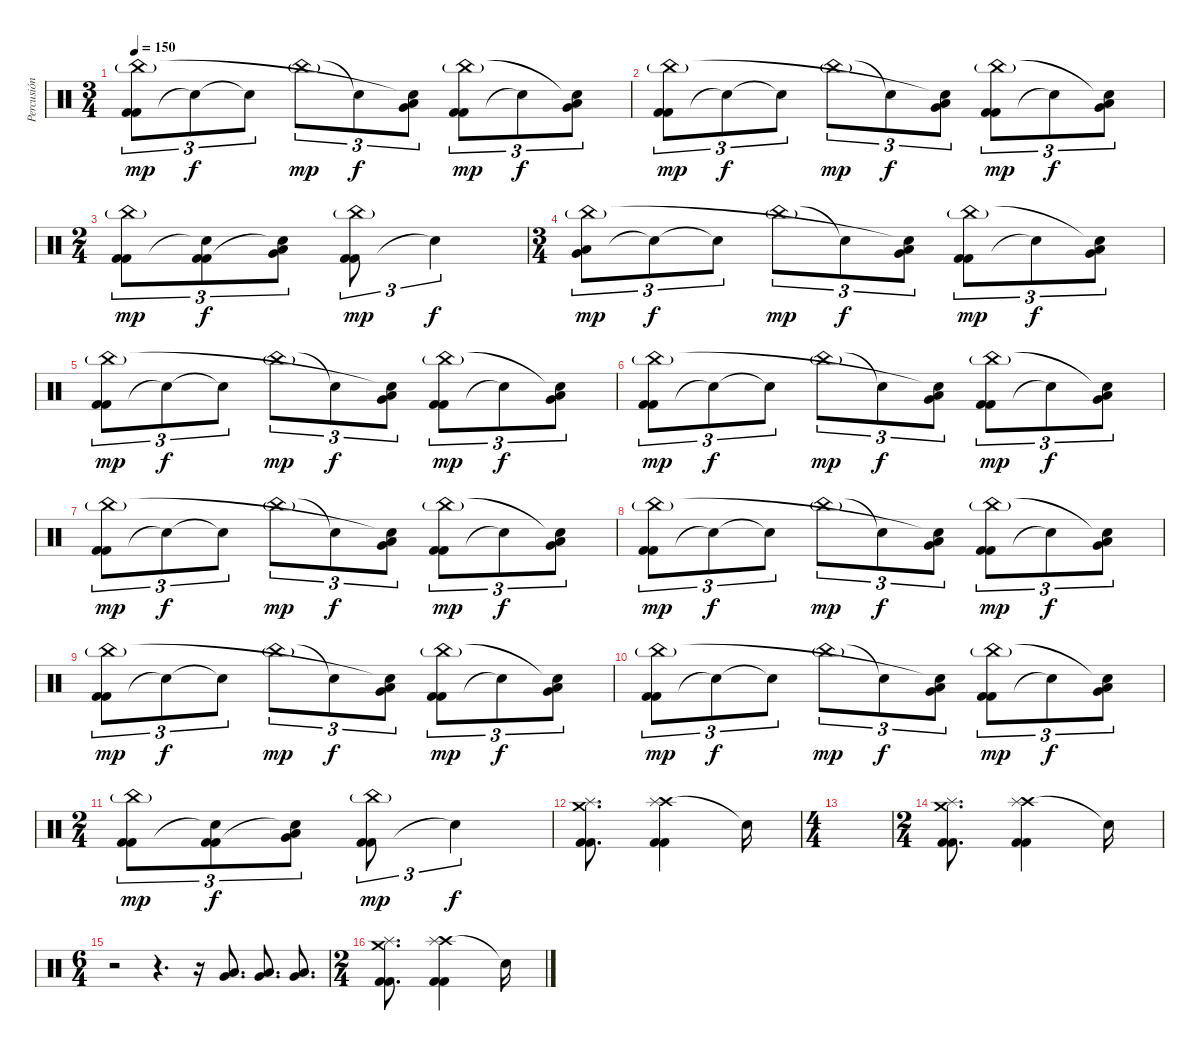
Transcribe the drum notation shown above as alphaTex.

\track ("Percusión" "Percusión") {instrument percussion}
\staff {score}
\articulation defaults
\ts (3 4)
\tempo 150
\clef neutral
\ks c
("Kick (hit) 2" "Kick (hit) 2" "China (hit)"{g}).8{tu (3 2) dy mp} "Snare (hit)"{t}.8{tu (3 2) dy f} "Snare (hit)"{t}.8{tu (3 2)} "China (hit)"{g}.8{tu (3 2) dy mp} "Snare (hit)"{t}.8{tu (3 2) dy f} ("Low Floor Tom (hit)" "Very Low Tom (hit)" "Snare (hit)"{t}).8{tu (3 2)} ("Kick (hit) 2" "Kick (hit) 2" "China (hit)"{g}).8{tu (3 2) dy mp} "Snare (hit)"{t}.8{tu (3 2) dy f} ("Low Floor Tom (hit)" "Very Low Tom (hit)" "Snare (hit)"{t}).8{tu (3 2)} |
("Kick (hit) 2" "Kick (hit) 2" "China (hit)"{g}).8{tu (3 2) dy mp} "Snare (hit)"{t}.8{tu (3 2) dy f} "Snare (hit)"{t}.8{tu (3 2)} "China (hit)"{g}.8{tu (3 2) dy mp} "Snare (hit)"{t}.8{tu (3 2) dy f} ("Low Floor Tom (hit)" "Very Low Tom (hit)" "Snare (hit)"{t}).8{tu (3 2)} ("Kick (hit) 2" "Kick (hit) 2" "China (hit)"{g}).8{tu (3 2) dy mp} "Snare (hit)"{t}.8{tu (3 2) dy f} ("Low Floor Tom (hit)" "Very Low Tom (hit)" "Snare (hit)"{t}).8{tu (3 2)} |
\ts (2 4)
("Kick (hit) 2" "Kick (hit) 2" "China (hit)"{g}).8{tu (3 2) dy mp} ("Snare (hit)"{t} "Kick (hit) 2" "Kick (hit) 2").8{tu (3 2) dy f} ("Low Floor Tom (hit)" "Very Low Tom (hit)" "Snare (hit)"{t}).8{tu (3 2)} ("Kick (hit) 2" "Kick (hit) 2" "China (hit)"{g}).8{tu (3 2) dy mp} "Snare (hit)"{t}.4{tu (3 2) dy f} |
\ts (3 4)
("Low Floor Tom (hit)" "Very Low Tom (hit)" "China (hit)"{g}).8{tu (3 2) dy mp} "Snare (hit)"{t}.8{tu (3 2) dy f} "Snare (hit)"{t}.8{tu (3 2)} "China (hit)"{g}.8{tu (3 2) dy mp} "Snare (hit)"{t}.8{tu (3 2) dy f} ("Low Floor Tom (hit)" "Very Low Tom (hit)" "Snare (hit)"{t}).8{tu (3 2)} ("Kick (hit) 2" "Kick (hit) 2" "China (hit)"{g}).8{tu (3 2) dy mp} "Snare (hit)"{t}.8{tu (3 2) dy f} ("Low Floor Tom (hit)" "Very Low Tom (hit)" "Snare (hit)"{t}).8{tu (3 2)} |
("Kick (hit) 2" "Kick (hit) 2" "China (hit)"{g}).8{tu (3 2) dy mp} "Snare (hit)"{t}.8{tu (3 2) dy f} "Snare (hit)"{t}.8{tu (3 2)} "China (hit)"{g}.8{tu (3 2) dy mp} "Snare (hit)"{t}.8{tu (3 2) dy f} ("Low Floor Tom (hit)" "Very Low Tom (hit)" "Snare (hit)"{t}).8{tu (3 2)} ("Kick (hit) 2" "Kick (hit) 2" "China (hit)"{g}).8{tu (3 2) dy mp} "Snare (hit)"{t}.8{tu (3 2) dy f} ("Low Floor Tom (hit)" "Very Low Tom (hit)" "Snare (hit)"{t}).8{tu (3 2)} |
("Kick (hit) 2" "Kick (hit) 2" "China (hit)"{g}).8{tu (3 2) dy mp} "Snare (hit)"{t}.8{tu (3 2) dy f} "Snare (hit)"{t}.8{tu (3 2)} "China (hit)"{g}.8{tu (3 2) dy mp} "Snare (hit)"{t}.8{tu (3 2) dy f} ("Low Floor Tom (hit)" "Very Low Tom (hit)" "Snare (hit)"{t}).8{tu (3 2)} ("Kick (hit) 2" "Kick (hit) 2" "China (hit)"{g}).8{tu (3 2) dy mp} "Snare (hit)"{t}.8{tu (3 2) dy f} ("Low Floor Tom (hit)" "Very Low Tom (hit)" "Snare (hit)"{t}).8{tu (3 2)} |
("Kick (hit) 2" "Kick (hit) 2" "China (hit)"{g}).8{tu (3 2) dy mp} "Snare (hit)"{t}.8{tu (3 2) dy f} "Snare (hit)"{t}.8{tu (3 2)} "China (hit)"{g}.8{tu (3 2) dy mp} "Snare (hit)"{t}.8{tu (3 2) dy f} ("Low Floor Tom (hit)" "Very Low Tom (hit)" "Snare (hit)"{t}).8{tu (3 2)} ("Kick (hit) 2" "Kick (hit) 2" "China (hit)"{g}).8{tu (3 2) dy mp} "Snare (hit)"{t}.8{tu (3 2) dy f} ("Low Floor Tom (hit)" "Very Low Tom (hit)" "Snare (hit)"{t}).8{tu (3 2)} |
("Kick (hit) 2" "Kick (hit) 2" "China (hit)"{g}).8{tu (3 2) dy mp} "Snare (hit)"{t}.8{tu (3 2) dy f} "Snare (hit)"{t}.8{tu (3 2)} "China (hit)"{g}.8{tu (3 2) dy mp} "Snare (hit)"{t}.8{tu (3 2) dy f} ("Low Floor Tom (hit)" "Very Low Tom (hit)" "Snare (hit)"{t}).8{tu (3 2)} ("Kick (hit) 2" "Kick (hit) 2" "China (hit)"{g}).8{tu (3 2) dy mp} "Snare (hit)"{t}.8{tu (3 2) dy f} ("Low Floor Tom (hit)" "Very Low Tom (hit)" "Snare (hit)"{t}).8{tu (3 2)} |
("Kick (hit) 2" "Kick (hit) 2" "China (hit)"{g}).8{tu (3 2) dy mp} "Snare (hit)"{t}.8{tu (3 2) dy f} "Snare (hit)"{t}.8{tu (3 2)} "China (hit)"{g}.8{tu (3 2) dy mp} "Snare (hit)"{t}.8{tu (3 2) dy f} ("Low Floor Tom (hit)" "Very Low Tom (hit)" "Snare (hit)"{t}).8{tu (3 2)} ("Kick (hit) 2" "Kick (hit) 2" "China (hit)"{g}).8{tu (3 2) dy mp} "Snare (hit)"{t}.8{tu (3 2) dy f} ("Low Floor Tom (hit)" "Very Low Tom (hit)" "Snare (hit)"{t}).8{tu (3 2)} |
("Kick (hit) 2" "Kick (hit) 2" "China (hit)"{g}).8{tu (3 2) dy mp} "Snare (hit)"{t}.8{tu (3 2) dy f} "Snare (hit)"{t}.8{tu (3 2)} "China (hit)"{g}.8{tu (3 2) dy mp} "Snare (hit)"{t}.8{tu (3 2) dy f} ("Low Floor Tom (hit)" "Very Low Tom (hit)" "Snare (hit)"{t}).8{tu (3 2)} ("Kick (hit) 2" "Kick (hit) 2" "China (hit)"{g}).8{tu (3 2) dy mp} "Snare (hit)"{t}.8{tu (3 2) dy f} ("Low Floor Tom (hit)" "Very Low Tom (hit)" "Snare (hit)"{t}).8{tu (3 2)} |
\ts (2 4)
("Kick (hit) 2" "Kick (hit) 2" "China (hit)"{g}).8{tu (3 2) dy mp} ("Snare (hit)"{t} "Kick (hit) 2" "Kick (hit) 2").8{tu (3 2) dy f} ("Low Floor Tom (hit)" "Very Low Tom (hit)" "Snare (hit)"{t}).8{tu (3 2)} ("Kick (hit) 2" "Kick (hit) 2" "China (hit)"{g}).8{tu (3 2) dy mp} "Snare (hit)"{t}.4{tu (3 2) dy f} |
("Crash medium (hit)" "Splash (hit)" "Kick (hit) 2" "Kick (hit) 2").8{d} ("Crash high (hit)" "Splash (hit)" "Kick (hit) 2" "Kick (hit) 2").4 "Snare (hit)"{t}.16 |
\ts (4 4)
|
\ts (2 4)
("Crash medium (hit)" "Splash (hit)" "Kick (hit) 2" "Kick (hit) 2").8{d} ("Crash high (hit)" "Splash (hit)" "Kick (hit) 2" "Kick (hit) 2").4 "Snare (hit)"{t}.16 |
\ts (6 4)
r.2 r.4{d} r.16 ("Low Floor Tom (hit)" "Very Low Tom (hit)").8{d} ("Very Low Tom (hit)" "Low Floor Tom (hit)").8{d} ("Very Low Tom (hit)" "Low Floor Tom (hit)").8{d} |
\ts (2 4)
("Crash medium (hit)" "Splash (hit)" "Kick (hit) 2" "Kick (hit) 2").8{d} ("Crash high (hit)" "Splash (hit)" "Kick (hit) 2" "Kick (hit) 2").4 "Snare (hit)"{t}.16
